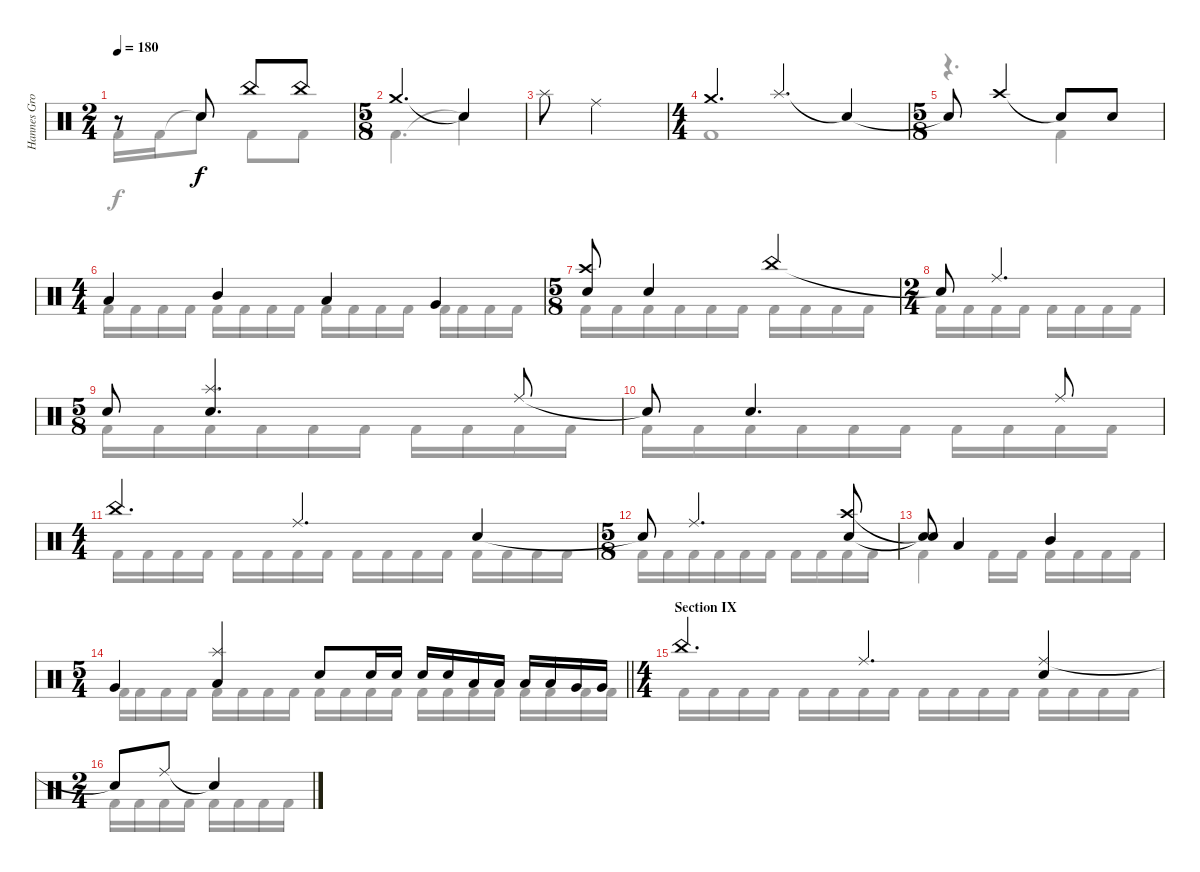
\track ("Hannes Grossman" "Hannes Gro") {instrument percussion}
\staff {score}
\articulation defaults
\voice
\ts (2 4)
\tempo 180
\clef neutral
\ks c
r.8{dy f} "Electric Snare (hit)".8 "China (hit)".8 "China (hit)".8 |
\ts (5 8)
"Crash medium (hit)".4{d} "Snare (hit)"{t}.4 |
"Splash (hit)".8 "Ride (middle)".2 |
\ts (4 4)
"Crash medium (hit)".4{d} "Splash (hit)".4{d} "Snare (hit)"{t}.4 |
\ts (5 8)
"Snare (hit)"{t}.8 "Crash high (hit)".4 "Snare (hit)"{t}.8 "Electric Snare (hit)".8 |
\ts (4 4)
"Low Tom (hit)".4 "Mid Tom (hit)".4 "Low Tom (hit)".4 "Very Low Tom (hit)".4 |
\ts (5 8)
("Crash high (hit)" "Electric Snare (hit)").8 "Electric Snare (hit)".4 "China (hit)".4 |
\ts (2 4)
"Snare (hit)"{t}.8 "Ride (middle)".4{d} |
\ts (5 8)
"Electric Snare (hit)".8 ("Splash (hit)" "Electric Snare (hit)").4{d} "Ride (middle)".8 |
"Snare (hit)"{t}.8 "Electric Snare (hit)".4{d} "Ride (middle)".8 |
\ts (4 4)
"China (hit)".4{d} "Ride (middle)".4{d} "Electric Snare (hit)".4 |
\ts (5 8)
"Snare (hit)"{t}.8 "Ride (middle)".4{d} ("Crash high (hit)" "Electric Snare (hit)").8 |
("Snare (hit)"{t} "Snare (hit)"{t}).8 "Low Tom (hit)".4 "Mid Tom (hit)".4 |
\ts (5 4)
\barLineRight lightlight "Very Low Tom (hit)".4
("Splash (hit)" "Low Tom (hit)").4 "Electric Snare (hit)".8 "Electric Snare (hit)".16 "Electric Snare (hit)".16 "Electric Snare (hit)".16 "Electric Snare (hit)".16 "Low Tom (hit)".16 "Low Tom (hit)".16 "Low Tom (hit)".16 "Low Tom (hit)".16 "Very Low Tom (hit)".16 "Very Low Tom (hit)".16 |
\ts (4 4)
\section ("" "Section IX")
"China (hit)".4{d} "Ride (middle)".4{d} ("Ride (middle)" "Electric Snare (hit)").4 |
\ts (2 4)
"Snare (hit)"{t}.8 "Ride (middle)".8 "Snare (hit)"{t}.4
\voice
\clef neutral
\ottava regular
\simile none
\ks c "Kick (hit) 2".16{dy f} "Kick (hit) 2".16 "Snare (hit)"{t}.8 "Kick (hit) 2".8 "Kick (hit) 2".8
|
"Kick (hit) 2".4{d} "Snare (hit)"{t}.4 |
|
"Kick (hit) 2".1 |
r.4{d} "Kick (hit) 2".4 |
"Kick (hit) 2".16 "Kick (hit) 2".16 "Kick (hit) 2".16 "Kick (hit) 2".16 "Kick (hit) 2".16 "Kick (hit) 2".16 "Kick (hit) 2".16 "Kick (hit) 2".16 "Kick (hit) 2".16 "Kick (hit) 2".16 "Kick (hit) 2".16 "Kick (hit) 2".16 "Kick (hit) 2".16 "Kick (hit) 2".16 "Kick (hit) 2".16 "Kick (hit) 2".16 |
"Kick (hit) 2".16 "Kick (hit) 2".16 "Kick (hit) 2".16 "Kick (hit) 2".16 "Kick (hit) 2".16 "Kick (hit) 2".16 "Kick (hit) 2".16 "Kick (hit) 2".16 "Kick (hit) 2".16 "Kick (hit) 2".16 |
"Kick (hit) 2".16 "Kick (hit) 2".16 "Kick (hit) 2".16 "Kick (hit) 2".16 "Kick (hit) 2".16 "Kick (hit) 2".16 "Kick (hit) 2".16 "Kick (hit) 2".16 |
"Kick (hit) 2".16 "Kick (hit) 2".16 "Kick (hit) 2".16 "Kick (hit) 2".16 "Kick (hit) 2".16 "Kick (hit) 2".16 "Kick (hit) 2".16 "Kick (hit) 2".16 "Kick (hit) 2".16 "Kick (hit) 2".16 |
"Kick (hit) 2".16 "Kick (hit) 2".16 "Kick (hit) 2".16 "Kick (hit) 2".16 "Kick (hit) 2".16 "Kick (hit) 2".16 "Kick (hit) 2".16 "Kick (hit) 2".16 "Kick (hit) 2".16 "Kick (hit) 2".16 |
"Kick (hit) 2".16 "Kick (hit) 2".16 "Kick (hit) 2".16 "Kick (hit) 2".16 "Kick (hit) 2".16 "Kick (hit) 2".16 "Kick (hit) 2".16 "Kick (hit) 2".16 "Kick (hit) 2".16 "Kick (hit) 2".16 "Kick (hit) 2".16 "Kick (hit) 2".16 "Kick (hit) 2".16 "Kick (hit) 2".16 "Kick (hit) 2".16 "Kick (hit) 2".16 |
"Kick (hit) 2".16 "Kick (hit) 2".16 "Kick (hit) 2".16 "Kick (hit) 2".16 "Kick (hit) 2".16 "Kick (hit) 2".16 "Kick (hit) 2".16 "Kick (hit) 2".16 "Kick (hit) 2".16 "Kick (hit) 2".16 |
"Kick (hit) 2".4 "Kick (hit) 2".16 "Kick (hit) 2".16 "Kick (hit) 2".16 "Kick (hit) 2".16 "Kick (hit) 2".16 "Kick (hit) 2".16 |
\barLineRight lightlight "Kick (hit) 2".16 "Kick (hit) 2".16 "Kick (hit) 2".16 "Kick (hit) 2".16 "Kick (hit) 2".16 "Kick (hit) 2".16 "Kick (hit) 2".16 "Kick (hit) 2".16 "Kick (hit) 2".16 "Kick (hit) 2".16 "Kick (hit) 2".16 "Kick (hit) 2".16 "Kick (hit) 2".16 "Kick (hit) 2".16 "Kick (hit) 2".16 "Kick (hit) 2".16 "Kick (hit) 2".16 "Kick (hit) 2".16 "Kick (hit) 2".16 "Kick (hit) 2".16
|
"Kick (hit) 2".16 "Kick (hit) 2".16 "Kick (hit) 2".16 "Kick (hit) 2".16 "Kick (hit) 2".16 "Kick (hit) 2".16 "Kick (hit) 2".16 "Kick (hit) 2".16 "Kick (hit) 2".16 "Kick (hit) 2".16 "Kick (hit) 2".16 "Kick (hit) 2".16 "Kick (hit) 2".16 "Kick (hit) 2".16 "Kick (hit) 2".16 "Kick (hit) 2".16 |
"Kick (hit) 2".16 "Kick (hit) 2".16 "Kick (hit) 2".16 "Kick (hit) 2".16 "Kick (hit) 2".16 "Kick (hit) 2".16 "Kick (hit) 2".16 "Kick (hit) 2".16
